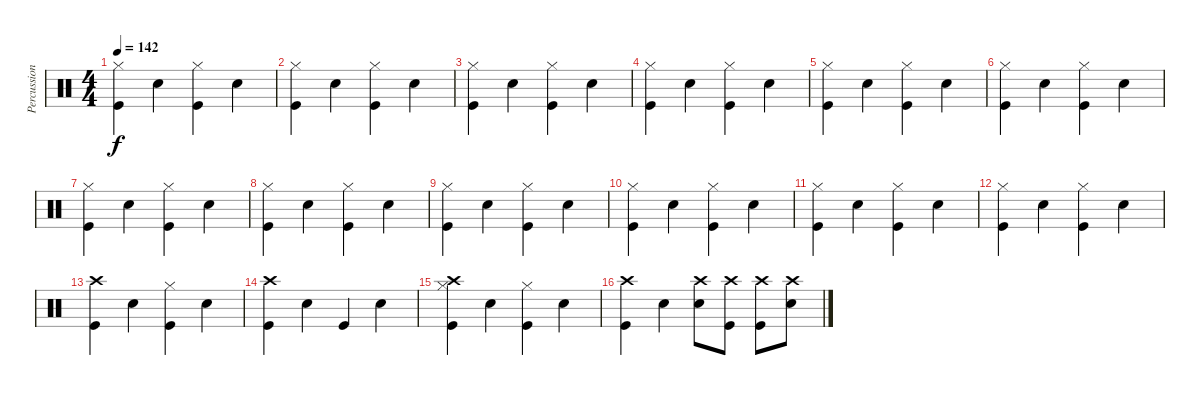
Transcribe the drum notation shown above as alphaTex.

\track ("Percussion" "Percussion") {instrument percussion}
\staff {score}
\articulation defaults
\ts (4 4)
\tempo 142
\clef neutral
\ks c
("Hi-Hat (closed)" "Kick (hit)").4{dy f} "Snare (hit) 2".4 ("Hi-Hat (closed)" "Kick (hit)").4 "Snare (hit) 2".4 |
("Hi-Hat (closed)" "Kick (hit)").4 "Snare (hit) 2".4 ("Hi-Hat (closed)" "Kick (hit)").4 "Snare (hit) 2".4 |
("Hi-Hat (closed)" "Kick (hit)").4 "Snare (hit) 2".4 ("Hi-Hat (closed)" "Kick (hit)").4 "Snare (hit) 2".4 |
("Hi-Hat (closed)" "Kick (hit)").4 "Snare (hit) 2".4 ("Hi-Hat (closed)" "Kick (hit)").4 "Snare (hit) 2".4 |
("Hi-Hat (closed)" "Kick (hit)").4 "Snare (hit) 2".4 ("Hi-Hat (closed)" "Kick (hit)").4 "Snare (hit) 2".4 |
("Hi-Hat (closed)" "Kick (hit)").4 "Snare (hit) 2".4 ("Hi-Hat (closed)" "Kick (hit)").4 "Snare (hit) 2".4 |
("Hi-Hat (closed)" "Kick (hit)").4 "Snare (hit) 2".4 ("Hi-Hat (closed)" "Kick (hit)").4 "Snare (hit) 2".4 |
("Hi-Hat (closed)" "Kick (hit)").4 "Snare (hit) 2".4 ("Hi-Hat (closed)" "Kick (hit)").4 "Snare (hit) 2".4 |
("Hi-Hat (closed)" "Kick (hit)").4 "Snare (hit) 2".4 ("Hi-Hat (closed)" "Kick (hit)").4 "Snare (hit) 2".4 |
("Hi-Hat (closed)" "Kick (hit)").4 "Snare (hit) 2".4 ("Hi-Hat (closed)" "Kick (hit)").4 "Snare (hit) 2".4 |
("Hi-Hat (closed)" "Kick (hit)").4 "Snare (hit) 2".4 ("Hi-Hat (closed)" "Kick (hit)").4 "Snare (hit) 2".4 |
("Hi-Hat (closed)" "Kick (hit)").4 "Snare (hit) 2".4 ("Hi-Hat (closed)" "Kick (hit)").4 "Snare (hit) 2".4 |
("Crash high (hit)" "Kick (hit)").4 "Snare (hit) 2".4 ("Hi-Hat (closed)" "Kick (hit)").4 "Snare (hit) 2".4 |
("Crash high (hit)" "Kick (hit)").4 "Snare (hit) 2".4 "Kick (hit)".4 "Snare (hit) 2".4 |
("Crash high (hit)" "Hi-Hat (closed)" "Kick (hit)").4 "Snare (hit) 2".4 ("Hi-Hat (closed)" "Kick (hit)").4 "Snare (hit) 2".4 |
("Crash high (hit)" "Kick (hit)").4 "Snare (hit) 2".4 ("Crash high (hit)" "Snare (hit) 2").8 ("Crash high (hit)" "Kick (hit)").8 ("Crash high (hit)" "Kick (hit)").8 ("Crash high (hit)" "Snare (hit) 2").8
